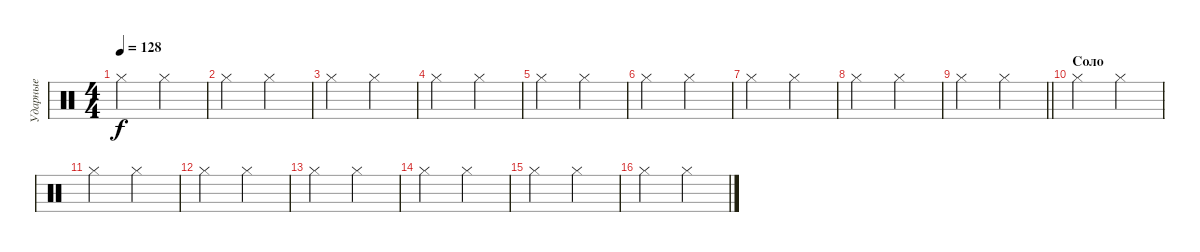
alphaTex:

\track ("Ударные" "Ударные") {instrument percussion}
\staff {score}
\articulation defaults
\ts (4 4)
\tempo 128
\clef neutral
\ks c "Hi-Hat (closed)".2{dy f} "Hi-Hat (closed)".2
|
"Hi-Hat (closed)".2 "Hi-Hat (closed)".2 |
"Hi-Hat (closed)".2 "Hi-Hat (closed)".2 |
"Hi-Hat (closed)".2 "Hi-Hat (closed)".2 |
"Hi-Hat (closed)".2 "Hi-Hat (closed)".2 |
"Hi-Hat (closed)".2 "Hi-Hat (closed)".2 |
"Hi-Hat (closed)".2 "Hi-Hat (closed)".2 |
"Hi-Hat (closed)".2 "Hi-Hat (closed)".2 |
\barLineRight lightlight "Hi-Hat (closed)".2 "Hi-Hat (closed)".2
|
\section ("" "Соло")
"Hi-Hat (closed)".2 "Hi-Hat (closed)".2 |
"Hi-Hat (closed)".2 "Hi-Hat (closed)".2 |
"Hi-Hat (closed)".2 "Hi-Hat (closed)".2 |
"Hi-Hat (closed)".2 "Hi-Hat (closed)".2 |
"Hi-Hat (closed)".2 "Hi-Hat (closed)".2 |
"Hi-Hat (closed)".2 "Hi-Hat (closed)".2 |
"Hi-Hat (closed)".2 "Hi-Hat (closed)".2
